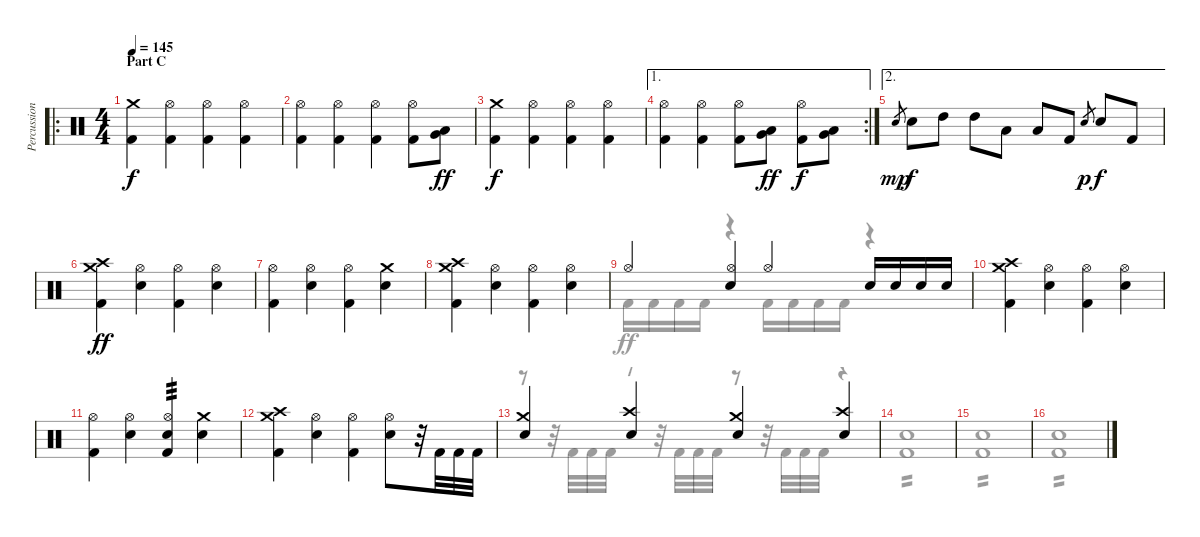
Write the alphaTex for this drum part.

\track ("Percussion" "Percussion") {instrument percussion}
\staff {score}
\articulation defaults
\voice
\ro
\ts (4 4)
\section ("" "Part C")
\tempo 145
\clef neutral
\ks c
("Crash medium (hit)" "Kick (hit) 2").4{dy f} ("Hi-Hat (open)" "Kick (hit) 2").4 ("Hi-Hat (open)" "Kick (hit) 2").4 ("Hi-Hat (open)" "Kick (hit) 2").4 |
("Hi-Hat (open)" "Kick (hit) 2").4 ("Hi-Hat (open)" "Kick (hit) 2").4 ("Hi-Hat (open)" "Kick (hit) 2").4 ("Hi-Hat (open)" "Kick (hit) 2").8 ("Very Low Tom (hit)" "Low Tom (hit)").8{dy ff} |
("Crash medium (hit)" "Kick (hit) 2").4{dy f} ("Hi-Hat (open)" "Kick (hit) 2").4 ("Hi-Hat (open)" "Kick (hit) 2").4 ("Hi-Hat (open)" "Kick (hit) 2").4 |
\ae 1
\rc 2
("Hi-Hat (open)" "Kick (hit) 2").4 ("Hi-Hat (open)" "Kick (hit) 2").4 ("Hi-Hat (open)" "Kick (hit) 2").8 ("Very Low Tom (hit)" "Low Tom (hit)").8{dy ff} ("Hi-Hat (open)" "Kick (hit) 2").8{dy f} ("Very Low Tom (hit)" "Low Tom (hit)").8 |
\ae 2 "Electric Snare (hit)".8{gr dy mp} "Electric Snare (hit)".8{dy f} "High Tom (hit)".8 "High Tom (hit)".8 "Low Tom (hit)".8 "Low Tom (hit)".8 "Kick (hit) 2".8 "Electric Snare (hit)".8{gr dy p} "Electric Snare (hit)".8{dy f} "Kick (hit) 2".8
|
("Crash medium (hit)" "Crash high (hit)" "Kick (hit) 2").4{dy ff} ("Hi-Hat (open)" "Electric Snare (hit)").4 ("Hi-Hat (open)" "Kick (hit) 2").4 ("Hi-Hat (open)" "Electric Snare (hit)").4 |
("Hi-Hat (open)" "Kick (hit) 2").4 ("Hi-Hat (open)" "Electric Snare (hit)").4 ("Hi-Hat (open)" "Kick (hit) 2").4 ("Crash medium (hit)" "Electric Snare (hit)").4 |
("Crash medium (hit)" "Crash high (hit)" "Kick (hit) 2").4 ("Hi-Hat (open)" "Electric Snare (hit)").4 ("Hi-Hat (open)" "Kick (hit) 2").4 ("Hi-Hat (open)" "Electric Snare (hit)").4 |
"Hi-Hat (open)".4 ("Hi-Hat (open)" "Electric Snare (hit)").4 "Hi-Hat (open)".4 "Electric Snare (hit)".16 "Electric Snare (hit)".16 "Electric Snare (hit)".16 "Electric Snare (hit)".16 |
("Crash medium (hit)" "Crash high (hit)" "Kick (hit) 2").4 ("Hi-Hat (open)" "Electric Snare (hit)").4 ("Hi-Hat (open)" "Kick (hit) 2").4 ("Hi-Hat (open)" "Electric Snare (hit)").4 |
("Hi-Hat (open)" "Kick (hit) 2").4 ("Hi-Hat (open)" "Electric Snare (hit)").4 ("Hi-Hat (open)" "Electric Snare (hit)" "Kick (hit) 2").4{tp 3} ("Crash medium (hit)" "Electric Snare (hit)").4 |
("Crash medium (hit)" "Crash high (hit)" "Kick (hit) 2").4 ("Hi-Hat (open)" "Electric Snare (hit)").4 ("Hi-Hat (open)" "Kick (hit) 2").4 ("Hi-Hat (open)" "Electric Snare (hit)").8 r.32 "Kick (hit) 2".32 "Kick (hit) 2".32 "Kick (hit) 2".32 |
("Crash medium (hit)" "Electric Snare (hit)").4 ("Crash high (hit)" "Electric Snare (hit)").4 ("Crash medium (hit)" "Electric Snare (hit)").4 ("Crash high (hit)" "Electric Snare (hit)").4 |
|
|
\voice
\clef neutral
\ottava regular
\simile none
\ks c
|
|
|
|
|
|
|
|
"Kick (hit) 2".16 "Kick (hit) 2".16 "Kick (hit) 2".16 "Kick (hit) 2".16 r.4 "Kick (hit) 2".16 "Kick (hit) 2".16 "Kick (hit) 2".16 "Kick (hit) 2".16 r.4 |
|
|
|
r.8 r.32 "Kick (hit) 2".32 "Kick (hit) 2".32 "Kick (hit) 2".32 r.8 r.32 "Kick (hit) 2".32 "Kick (hit) 2".32 "Kick (hit) 2".32 r.8 r.32 "Kick (hit) 2".32 "Kick (hit) 2".32 "Kick (hit) 2".32 r.4 |
("Electric Snare (hit)" "Kick (hit) 2").1{tp 2} |
("Electric Snare (hit)" "Kick (hit) 2").1{tp 2} |
("Electric Snare (hit)" "Kick (hit) 2").1{tp 2}
